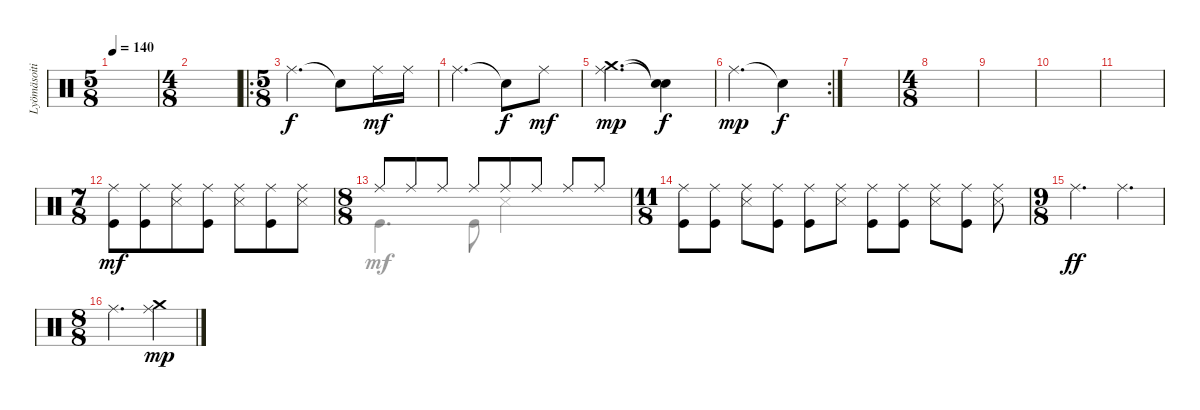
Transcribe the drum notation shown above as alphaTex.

\track ("Lyömäsoitin" "Lyömäsoiti") {instrument percussion}
\staff {score}
\articulation defaults
\voice
\ts (5 8)
\tempo 140
\clef neutral
\ks c
|
\ts (4 8)
|
\ro
\ts (5 8)
"Ride (middle)".4{d} "Snare (hit)"{t}.8{dy f} "Ride (middle)".16{dy mf} "Ride (middle)".16 |
"Ride (middle)".4{d} "Snare (hit)"{t}.8{dy f} "Ride (middle)".8{dy mf} |
("Ride (middle)" "Crash medium (hit)").4{d dy mp} ("Snare (hit)"{t} "Snare (hit)"{t}).4{dy f} |
\rc 2 "Ride (middle)".4{d dy mp} "Snare (hit)"{t}.4{dy f}
|
|
\ts (4 8)
|
|
|
|
\ts (7 8)
("Ride (middle)" "Kick (hit)").8{dy mf} ("Ride (middle)" "Kick (hit)").8 ("Ride (middle)" "Snare (side stick) 3").8 ("Ride (middle)" "Kick (hit)").8 ("Ride (middle)" "Snare (side stick) 3").8 ("Ride (middle)" "Kick (hit)").8 ("Ride (middle)" "Snare (side stick) 3").8 |
\ts (8 8)
"Ride (middle)".8 "Ride (middle)".8 "Ride (middle)".8 "Ride (middle)".8 "Ride (middle)".8 "Ride (middle)".8 "Ride (middle)".8 "Ride (middle)".8 |
\ts (11 8)
("Ride (middle)" "Kick (hit)").8 ("Ride (middle)" "Kick (hit)").8 ("Ride (middle)" "Snare (side stick) 3").8 ("Ride (middle)" "Kick (hit)").8 ("Ride (middle)" "Kick (hit)").8 ("Ride (middle)" "Snare (side stick) 3").8 ("Ride (middle)" "Kick (hit)").8 ("Ride (middle)" "Kick (hit)").8 ("Ride (middle)" "Snare (side stick) 3").8 ("Ride (middle)" "Kick (hit)").8 ("Ride (middle)" "Snare (side stick) 3").8 |
\ts (9 8)
"Ride (middle)".2{d dy ff} "Ride (middle)".4{d} |
\ts (8 8)
"Ride (middle)".2{d} ("Ride (middle)" "Crash medium (hit)").4{dy mp}
\voice
\clef neutral
\ottava regular
\simile none
\ks c
|
|
|
|
|
|
|
|
|
|
|
|
"Kick (hit)".4{d dy mf} "Kick (hit)".8 "Snare (side stick) 3".2 |
|
|
